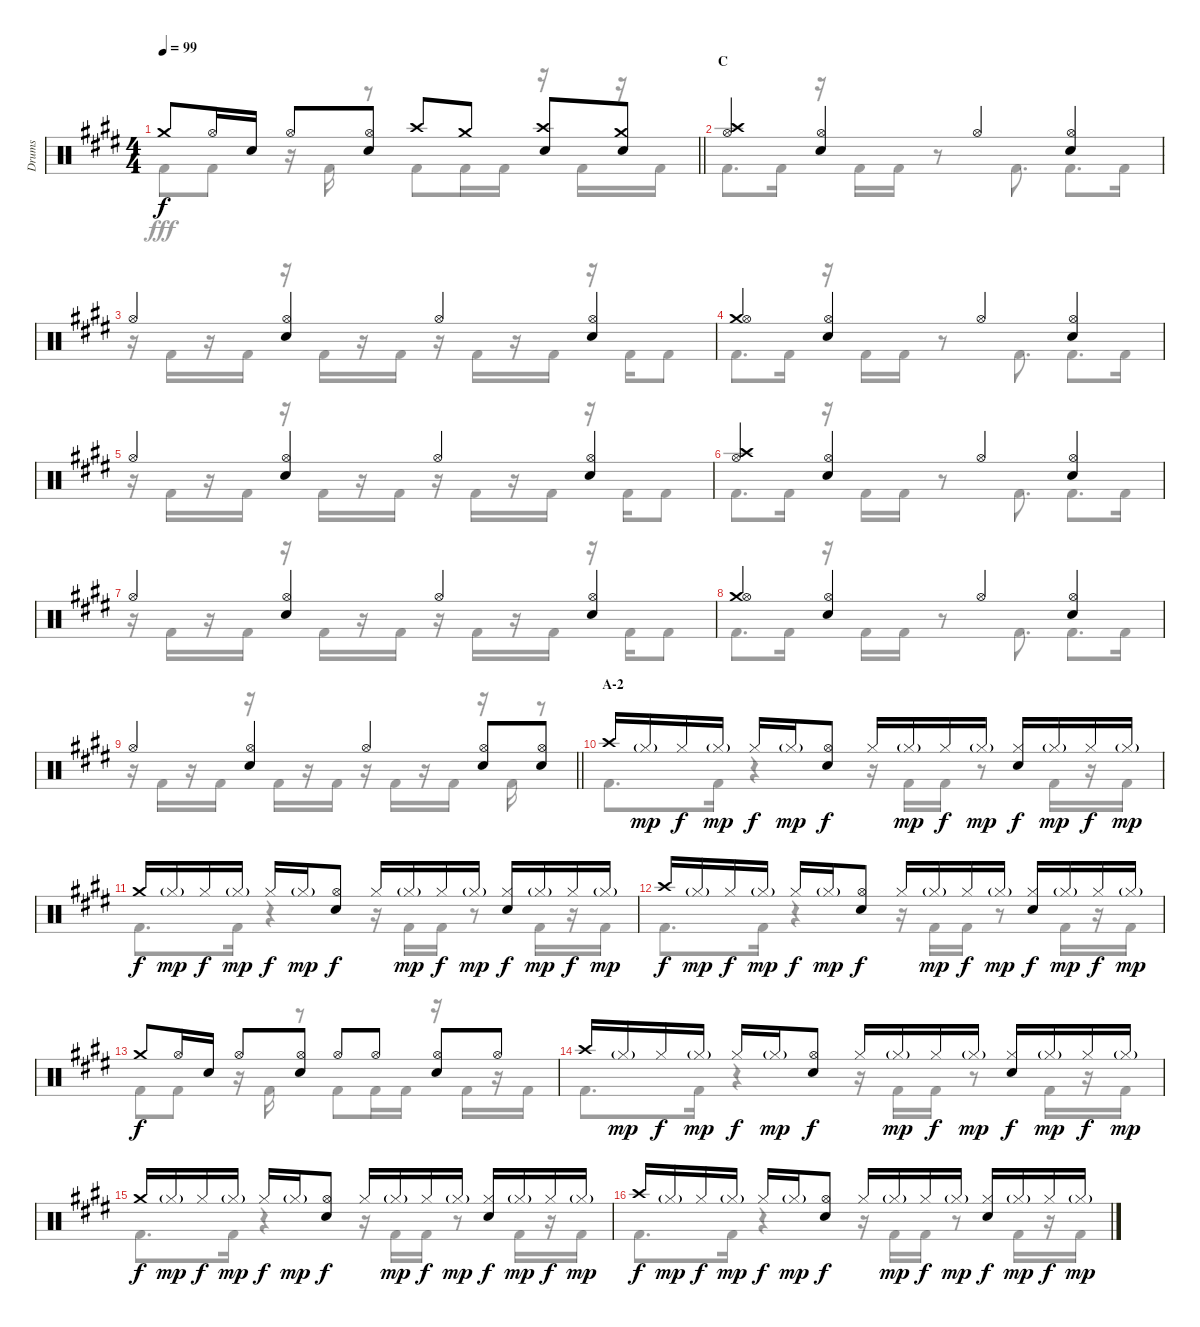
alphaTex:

\track ("Drums" "Drums") {instrument percussion}
\staff {score}
\articulation defaults
\voice
\ts (4 4)
\tempo 99
\clef neutral
\barLineRight lightlight
\ks e "Crash medium (hit)".8{dy f} "Hi-Hat (open)".16 "Snare (hit) 2".16 "Hi-Hat (open)".8
("Hi-Hat (open)" "Snare (hit) 2").8 "Crash high (hit)".8 "Crash medium (hit)".8 ("Crash high (hit)" "Snare (hit) 2").8 ("Crash medium (hit)" "Snare (hit) 2").8 |
\section ("" "C")
("Crash high (hit)" "Hi-Hat (open)").4 ("Hi-Hat (open)" "Snare (hit) 2").4 "Hi-Hat (open)".4 ("Hi-Hat (open)" "Snare (hit) 2").4 |
"Hi-Hat (open)".4 ("Hi-Hat (open)" "Snare (hit) 2").4 "Hi-Hat (open)".4 ("Hi-Hat (open)" "Snare (hit) 2").4 |
("Crash medium (hit)" "Hi-Hat (open)").4 ("Hi-Hat (open)" "Snare (hit) 2").4 "Hi-Hat (open)".4 ("Hi-Hat (open)" "Snare (hit) 2").4 |
"Hi-Hat (open)".4 ("Hi-Hat (open)" "Snare (hit) 2").4 "Hi-Hat (open)".4 ("Hi-Hat (open)" "Snare (hit) 2").4 |
("Crash high (hit)" "Hi-Hat (open)").4 ("Hi-Hat (open)" "Snare (hit) 2").4 "Hi-Hat (open)".4 ("Hi-Hat (open)" "Snare (hit) 2").4 |
"Hi-Hat (open)".4 ("Hi-Hat (open)" "Snare (hit) 2").4 "Hi-Hat (open)".4 ("Hi-Hat (open)" "Snare (hit) 2").4 |
("Crash medium (hit)" "Hi-Hat (open)").4 ("Hi-Hat (open)" "Snare (hit) 2").4 "Hi-Hat (open)".4 ("Hi-Hat (open)" "Snare (hit) 2").4 |
\barLineRight lightlight "Hi-Hat (open)".4
("Hi-Hat (open)" "Snare (hit) 2").4 "Hi-Hat (open)".4 ("Hi-Hat (open)" "Snare (hit) 2").8 ("Hi-Hat (open)" "Snare (hit) 2").8 |
\section ("" "A-2")
"Crash high (hit)".16 "Hi-Hat (closed)"{g}.16{dy mp} "Hi-Hat (closed)".16{dy f} "Hi-Hat (closed)"{g}.16{dy mp} "Hi-Hat (closed)".16{dy f} "Hi-Hat (closed)"{g}.16{dy mp} ("Hi-Hat (open)" "Snare (hit) 2").8{dy f} "Hi-Hat (closed)".16 "Hi-Hat (closed)"{g}.16{dy mp} "Hi-Hat (closed)".16{dy f} "Hi-Hat (closed)"{g}.16{dy mp} ("Hi-Hat (closed)" "Snare (hit) 2").16{dy f} "Hi-Hat (closed)"{g}.16{dy mp} "Hi-Hat (closed)".16{dy f} "Hi-Hat (closed)"{g}.16{dy mp} |
"Crash medium (hit)".16{dy f} "Hi-Hat (closed)"{g}.16{dy mp} "Hi-Hat (closed)".16{dy f} "Hi-Hat (closed)"{g}.16{dy mp} "Hi-Hat (closed)".16{dy f} "Hi-Hat (closed)"{g}.16{dy mp} ("Hi-Hat (open)" "Snare (hit) 2").8{dy f} "Hi-Hat (closed)".16 "Hi-Hat (closed)"{g}.16{dy mp} "Hi-Hat (closed)".16{dy f} "Hi-Hat (closed)"{g}.16{dy mp} ("Hi-Hat (closed)" "Snare (hit) 2").16{dy f} "Hi-Hat (closed)"{g}.16{dy mp} "Hi-Hat (closed)".16{dy f} "Hi-Hat (closed)"{g}.16{dy mp} |
"Crash high (hit)".16{dy f} "Hi-Hat (closed)"{g}.16{dy mp} "Hi-Hat (closed)".16{dy f} "Hi-Hat (closed)"{g}.16{dy mp} "Hi-Hat (closed)".16{dy f} "Hi-Hat (closed)"{g}.16{dy mp} ("Hi-Hat (open)" "Snare (hit) 2").8{dy f} "Hi-Hat (closed)".16 "Hi-Hat (closed)"{g}.16{dy mp} "Hi-Hat (closed)".16{dy f} "Hi-Hat (closed)"{g}.16{dy mp} ("Hi-Hat (closed)" "Snare (hit) 2").16{dy f} "Hi-Hat (closed)"{g}.16{dy mp} "Hi-Hat (closed)".16{dy f} "Hi-Hat (closed)"{g}.16{dy mp} |
"Crash medium (hit)".8{dy f} "Hi-Hat (open)".16 "Snare (hit) 2".16 "Hi-Hat (open)".8 ("Hi-Hat (open)" "Snare (hit) 2").8 "Hi-Hat (open)".8 "Hi-Hat (open)".8 ("Hi-Hat (open)" "Snare (hit) 2").8 "Hi-Hat (open)".8 |
"Crash high (hit)".16 "Hi-Hat (closed)"{g}.16{dy mp} "Hi-Hat (closed)".16{dy f} "Hi-Hat (closed)"{g}.16{dy mp} "Hi-Hat (closed)".16{dy f} "Hi-Hat (closed)"{g}.16{dy mp} ("Hi-Hat (open)" "Snare (hit) 2").8{dy f} "Hi-Hat (closed)".16 "Hi-Hat (closed)"{g}.16{dy mp} "Hi-Hat (closed)".16{dy f} "Hi-Hat (closed)"{g}.16{dy mp} ("Hi-Hat (closed)" "Snare (hit) 2").16{dy f} "Hi-Hat (closed)"{g}.16{dy mp} "Hi-Hat (closed)".16{dy f} "Hi-Hat (closed)"{g}.16{dy mp} |
"Crash medium (hit)".16{dy f} "Hi-Hat (closed)"{g}.16{dy mp} "Hi-Hat (closed)".16{dy f} "Hi-Hat (closed)"{g}.16{dy mp} "Hi-Hat (closed)".16{dy f} "Hi-Hat (closed)"{g}.16{dy mp} ("Hi-Hat (open)" "Snare (hit) 2").8{dy f} "Hi-Hat (closed)".16 "Hi-Hat (closed)"{g}.16{dy mp} "Hi-Hat (closed)".16{dy f} "Hi-Hat (closed)"{g}.16{dy mp} ("Hi-Hat (closed)" "Snare (hit) 2").16{dy f} "Hi-Hat (closed)"{g}.16{dy mp} "Hi-Hat (closed)".16{dy f} "Hi-Hat (closed)"{g}.16{dy mp} |
"Crash high (hit)".16{dy f} "Hi-Hat (closed)"{g}.16{dy mp} "Hi-Hat (closed)".16{dy f} "Hi-Hat (closed)"{g}.16{dy mp} "Hi-Hat (closed)".16{dy f} "Hi-Hat (closed)"{g}.16{dy mp} ("Hi-Hat (open)" "Snare (hit) 2").8{dy f} "Hi-Hat (closed)".16 "Hi-Hat (closed)"{g}.16{dy mp} "Hi-Hat (closed)".16{dy f} "Hi-Hat (closed)"{g}.16{dy mp} ("Hi-Hat (closed)" "Snare (hit) 2").16{dy f} "Hi-Hat (closed)"{g}.16{dy mp} "Hi-Hat (closed)".16{dy f} "Hi-Hat (closed)"{g}.16{dy mp}
\voice
\clef neutral
\ottava regular
\simile none
\barLineRight lightlight
\ks e "Kick (hit) 2".8{dy fff} "Kick (hit) 2".8
r.16 "Kick (hit) 2".16 r.8 "Kick (hit) 2".8 "Kick (hit) 2".16 "Kick (hit) 2".16 r.16 "Kick (hit) 2".16 r.16 "Kick (hit) 2".16 |
"Kick (hit) 2".8{d} "Kick (hit) 2".16 r.16 "Kick (hit) 2".16 "Kick (hit) 2".16 r.8 "Kick (hit) 2".8{d} "Kick (hit) 2".8{d} "Kick (hit) 2".16 |
r.16 "Kick (hit) 2".16 r.16 "Kick (hit) 2".16 r.16 "Kick (hit) 2".16 r.16 "Kick (hit) 2".16 r.16 "Kick (hit) 2".16 r.16 "Kick (hit) 2".16 r.16 "Kick (hit) 2".16 "Kick (hit) 2".8 |
"Kick (hit) 2".8{d} "Kick (hit) 2".16 r.16 "Kick (hit) 2".16 "Kick (hit) 2".16 r.8 "Kick (hit) 2".8{d} "Kick (hit) 2".8{d} "Kick (hit) 2".16 |
r.16 "Kick (hit) 2".16 r.16 "Kick (hit) 2".16 r.16 "Kick (hit) 2".16 r.16 "Kick (hit) 2".16 r.16 "Kick (hit) 2".16 r.16 "Kick (hit) 2".16 r.16 "Kick (hit) 2".16 "Kick (hit) 2".8 |
"Kick (hit) 2".8{d} "Kick (hit) 2".16 r.16 "Kick (hit) 2".16 "Kick (hit) 2".16 r.8 "Kick (hit) 2".8{d} "Kick (hit) 2".8{d} "Kick (hit) 2".16 |
r.16 "Kick (hit) 2".16 r.16 "Kick (hit) 2".16 r.16 "Kick (hit) 2".16 r.16 "Kick (hit) 2".16 r.16 "Kick (hit) 2".16 r.16 "Kick (hit) 2".16 r.16 "Kick (hit) 2".16 "Kick (hit) 2".8 |
"Kick (hit) 2".8{d} "Kick (hit) 2".16 r.16 "Kick (hit) 2".16 "Kick (hit) 2".16 r.8 "Kick (hit) 2".8{d} "Kick (hit) 2".8{d} "Kick (hit) 2".16 |
\barLineRight lightlight
r.16 "Kick (hit) 2".16 r.16 "Kick (hit) 2".16 r.16 "Kick (hit) 2".16 r.16 "Kick (hit) 2".16 r.16 "Kick (hit) 2".16 r.16 "Kick (hit) 2".16 r.16 "Kick (hit) 2".16 r.8 |
"Kick (hit) 2".8{d} "Kick (hit) 2".16 r.4 r.16 "Kick (hit) 2".16 "Kick (hit) 2".16 r.8 "Kick (hit) 2".16 r.16 "Kick (hit) 2".16 |
"Kick (hit) 2".8{d} "Kick (hit) 2".16 r.4 r.16 "Kick (hit) 2".16 "Kick (hit) 2".16 r.8 "Kick (hit) 2".16 r.16 "Kick (hit) 2".16 |
"Kick (hit) 2".8{d} "Kick (hit) 2".16 r.4 r.16 "Kick (hit) 2".16 "Kick (hit) 2".16 r.8 "Kick (hit) 2".16 r.16 "Kick (hit) 2".16 |
"Kick (hit) 2".8 "Kick (hit) 2".8 r.16 "Kick (hit) 2".16 r.8 "Kick (hit) 2".8 "Kick (hit) 2".16 "Kick (hit) 2".16 r.16 "Kick (hit) 2".16 r.16 "Kick (hit) 2".16 |
"Kick (hit) 2".8{d} "Kick (hit) 2".16 r.4 r.16 "Kick (hit) 2".16 "Kick (hit) 2".16 r.8 "Kick (hit) 2".16 r.16 "Kick (hit) 2".16 |
"Kick (hit) 2".8{d} "Kick (hit) 2".16 r.4 r.16 "Kick (hit) 2".16 "Kick (hit) 2".16 r.8 "Kick (hit) 2".16 r.16 "Kick (hit) 2".16 |
"Kick (hit) 2".8{d} "Kick (hit) 2".16 r.4 r.16 "Kick (hit) 2".16 "Kick (hit) 2".16 r.8 "Kick (hit) 2".16 r.16 "Kick (hit) 2".16
